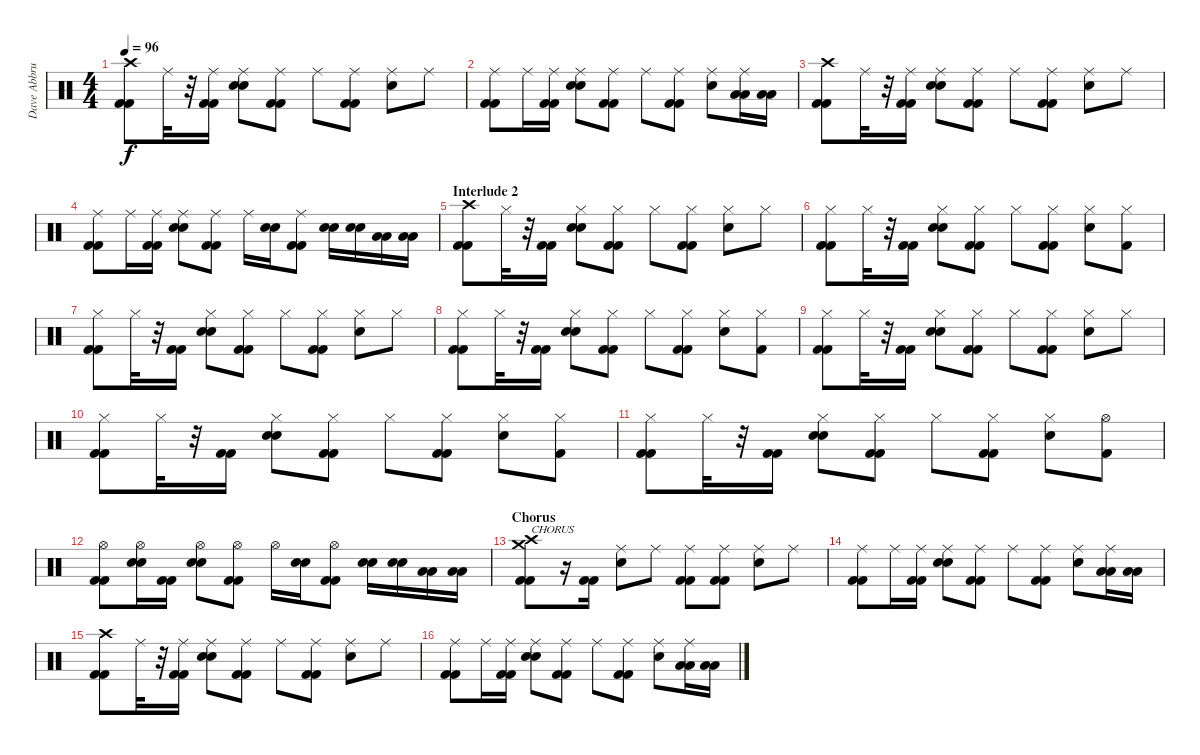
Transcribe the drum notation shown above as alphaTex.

\track ("Dave Abbruzzese" "Dave Abbru") {instrument percussion}
\staff {score}
\articulation defaults
\ts (4 4)
\tempo 96
\clef neutral
\ks c
("Crash high (hit)" "Kick (hit) 2" "Kick (hit) 2").8{dy f} "Ride (middle)".32 r.32 ("Ride (middle)" "Kick (hit) 2" "Kick (hit) 2").16 ("Ride (middle)" "Electric Snare (hit)" "Electric Snare (hit)").8 ("Ride (middle)" "Kick (hit) 2" "Kick (hit) 2").8 "Ride (middle)".8 ("Ride (middle)" "Kick (hit) 2" "Kick (hit) 2").8 ("Ride (middle)" "Electric Snare (hit)").8 "Ride (middle)".8 |
("Ride (middle)" "Kick (hit) 2" "Kick (hit) 2").8 "Ride (middle)".16 ("Ride (middle)" "Kick (hit) 2" "Kick (hit) 2").16 ("Ride (middle)" "Electric Snare (hit)" "Electric Snare (hit)").8 ("Ride (middle)" "Kick (hit) 2" "Kick (hit) 2").8 "Ride (middle)".8 ("Ride (middle)" "Kick (hit) 2" "Kick (hit) 2").8 ("Ride (middle)" "Electric Snare (hit)").8 ("Ride (middle)" "Low Tom (hit)" "Low Tom (hit)").16 ("Low Tom (hit)" "Low Tom (hit)").16 |
("Crash high (hit)" "Kick (hit) 2" "Kick (hit) 2").8 "Ride (middle)".32 r.32 ("Ride (middle)" "Kick (hit) 2" "Kick (hit) 2").16 ("Ride (middle)" "Electric Snare (hit)" "Electric Snare (hit)").8 ("Ride (middle)" "Kick (hit) 2" "Kick (hit) 2").8 "Ride (middle)".8 ("Ride (middle)" "Kick (hit) 2" "Kick (hit) 2").8 ("Ride (middle)" "Electric Snare (hit)").8 "Ride (middle)".8 |
("Ride (middle)" "Kick (hit) 2" "Kick (hit) 2").8 "Ride (middle)".16 ("Ride (middle)" "Kick (hit) 2" "Kick (hit) 2").16 ("Ride (middle)" "Electric Snare (hit)" "Electric Snare (hit)").8 ("Ride (middle)" "Kick (hit) 2" "Kick (hit) 2").8 "Ride (middle)".16 ("Electric Snare (hit)" "Electric Snare (hit)").16 ("Ride (middle)" "Kick (hit) 2" "Kick (hit) 2").8 ("Electric Snare (hit)" "Electric Snare (hit)").16 ("Electric Snare (hit)" "Electric Snare (hit)").16 ("Low Tom (hit)" "Low Tom (hit)").16 ("Low Tom (hit)" "Low Tom (hit)").16 |
\section ("" "Interlude 2")
("Crash high (hit)" "Kick (hit) 2" "Kick (hit) 2").8 "Hi-Hat (closed)".32 r.32 ("Kick (hit) 2" "Kick (hit) 2").16 ("Hi-Hat (closed)" "Electric Snare (hit)" "Electric Snare (hit)").8 ("Hi-Hat (closed)" "Kick (hit) 2" "Kick (hit) 2").8 "Hi-Hat (closed)".8 ("Hi-Hat (closed)" "Kick (hit) 2" "Kick (hit) 2").8 ("Hi-Hat (closed)" "Electric Snare (hit)").8 "Hi-Hat (closed)".8 |
("Hi-Hat (closed)" "Kick (hit) 2" "Kick (hit) 2").8 "Hi-Hat (closed)".32 r.32 ("Kick (hit) 2" "Kick (hit) 2").16 ("Hi-Hat (closed)" "Electric Snare (hit)" "Electric Snare (hit)").8 ("Hi-Hat (closed)" "Kick (hit) 2" "Kick (hit) 2").8 "Hi-Hat (closed)".8 ("Hi-Hat (closed)" "Kick (hit) 2" "Kick (hit) 2").8 ("Hi-Hat (closed)" "Electric Snare (hit)").8 ("Hi-Hat (closed)" "Kick (hit) 2").8 |
("Hi-Hat (closed)" "Kick (hit) 2" "Kick (hit) 2").8 "Hi-Hat (closed)".32 r.32 ("Kick (hit) 2" "Kick (hit) 2").16 ("Hi-Hat (closed)" "Electric Snare (hit)" "Electric Snare (hit)").8 ("Hi-Hat (closed)" "Kick (hit) 2" "Kick (hit) 2").8 "Hi-Hat (closed)".8 ("Hi-Hat (closed)" "Kick (hit) 2" "Kick (hit) 2").8 ("Hi-Hat (closed)" "Electric Snare (hit)").8 "Hi-Hat (closed)".8 |
("Hi-Hat (closed)" "Kick (hit) 2" "Kick (hit) 2").8 "Hi-Hat (closed)".32 r.32 ("Kick (hit) 2" "Kick (hit) 2").16 ("Hi-Hat (closed)" "Electric Snare (hit)" "Electric Snare (hit)").8 ("Hi-Hat (closed)" "Kick (hit) 2" "Kick (hit) 2").8 "Hi-Hat (closed)".8 ("Hi-Hat (closed)" "Kick (hit) 2" "Kick (hit) 2").8 ("Hi-Hat (closed)" "Electric Snare (hit)").8 ("Hi-Hat (closed)" "Kick (hit) 2").8 |
("Hi-Hat (closed)" "Kick (hit) 2" "Kick (hit) 2").8 "Hi-Hat (closed)".32 r.32 ("Kick (hit) 2" "Kick (hit) 2").16 ("Hi-Hat (closed)" "Electric Snare (hit)" "Electric Snare (hit)").8 ("Hi-Hat (closed)" "Kick (hit) 2" "Kick (hit) 2").8 "Hi-Hat (closed)".8 ("Hi-Hat (closed)" "Kick (hit) 2" "Kick (hit) 2").8 ("Hi-Hat (closed)" "Electric Snare (hit)").8 "Hi-Hat (closed)".8 |
("Hi-Hat (closed)" "Kick (hit) 2" "Kick (hit) 2").8 "Hi-Hat (closed)".32 r.32 ("Kick (hit) 2" "Kick (hit) 2").16 ("Hi-Hat (closed)" "Electric Snare (hit)" "Electric Snare (hit)").8 ("Hi-Hat (closed)" "Kick (hit) 2" "Kick (hit) 2").8 "Hi-Hat (closed)".8 ("Hi-Hat (closed)" "Kick (hit) 2" "Kick (hit) 2").8 ("Hi-Hat (closed)" "Electric Snare (hit)").8 ("Hi-Hat (closed)" "Kick (hit) 2").8 |
("Hi-Hat (closed)" "Kick (hit) 2" "Kick (hit) 2").8 "Hi-Hat (closed)".32 r.32 ("Kick (hit) 2" "Kick (hit) 2").16 ("Hi-Hat (closed)" "Electric Snare (hit)" "Electric Snare (hit)").8 ("Hi-Hat (closed)" "Kick (hit) 2" "Kick (hit) 2").8 "Hi-Hat (closed)".8 ("Hi-Hat (closed)" "Kick (hit) 2" "Kick (hit) 2").8 ("Hi-Hat (closed)" "Electric Snare (hit)").8 ("Hi-Hat (open)" "Kick (hit) 2").8 |
("Hi-Hat (open)" "Kick (hit) 2" "Kick (hit) 2").8 ("Hi-Hat (open)" "Electric Snare (hit)" "Electric Snare (hit)").16 ("Kick (hit) 2" "Kick (hit) 2").16 ("Hi-Hat (open)" "Electric Snare (hit)" "Electric Snare (hit)").8 ("Hi-Hat (open)" "Kick (hit) 2" "Kick (hit) 2").8 "Hi-Hat (open)".16 ("Electric Snare (hit)" "Electric Snare (hit)").16 ("Hi-Hat (open)" "Kick (hit) 2" "Kick (hit) 2").8 ("Electric Snare (hit)" "Electric Snare (hit)").16 ("Electric Snare (hit)" "Electric Snare (hit)").16 ("Low Tom (hit)" "Low Tom (hit)").16 ("Low Tom (hit)" "Low Tom (hit)").16 |
\section ("" "Chorus")
("Crash medium (hit)" "Crash high (hit)" "Kick (hit) 2" "Kick (hit) 2").8{txt "CHORUS"} r.16 ("Kick (hit) 2" "Kick (hit) 2").16 ("Ride (middle)" "Electric Snare (hit)").8 "Ride (middle)".8 ("Ride (middle)" "Kick (hit) 2" "Kick (hit) 2").8 ("Ride (middle)" "Kick (hit) 2" "Kick (hit) 2").8 ("Ride (middle)" "Electric Snare (hit)").8 "Ride (middle)".8 |
("Ride (middle)" "Kick (hit) 2" "Kick (hit) 2").8 "Ride (middle)".16 ("Ride (middle)" "Kick (hit) 2" "Kick (hit) 2").16 ("Ride (middle)" "Electric Snare (hit)" "Electric Snare (hit)").8 ("Ride (middle)" "Kick (hit) 2" "Kick (hit) 2").8 "Ride (middle)".8 ("Ride (middle)" "Kick (hit) 2" "Kick (hit) 2").8 ("Ride (middle)" "Electric Snare (hit)").8 ("Ride (middle)" "Low Tom (hit)" "Low Tom (hit)").16 ("Low Tom (hit)" "Low Tom (hit)").16 |
("Crash high (hit)" "Kick (hit) 2" "Kick (hit) 2").8 "Ride (middle)".32 r.32 ("Ride (middle)" "Kick (hit) 2" "Kick (hit) 2").16 ("Ride (middle)" "Electric Snare (hit)" "Electric Snare (hit)").8 ("Ride (middle)" "Kick (hit) 2" "Kick (hit) 2").8 "Ride (middle)".8 ("Ride (middle)" "Kick (hit) 2" "Kick (hit) 2").8 ("Ride (middle)" "Electric Snare (hit)").8 "Ride (middle)".8 |
("Ride (middle)" "Kick (hit) 2" "Kick (hit) 2").8 "Ride (middle)".16 ("Ride (middle)" "Kick (hit) 2" "Kick (hit) 2").16 ("Ride (middle)" "Electric Snare (hit)" "Electric Snare (hit)").8 ("Ride (middle)" "Kick (hit) 2" "Kick (hit) 2").8 "Ride (middle)".8 ("Ride (middle)" "Kick (hit) 2" "Kick (hit) 2").8 ("Ride (middle)" "Electric Snare (hit)").8 ("Ride (middle)" "Low Tom (hit)" "Low Tom (hit)").16 ("Low Tom (hit)" "Low Tom (hit)").16
